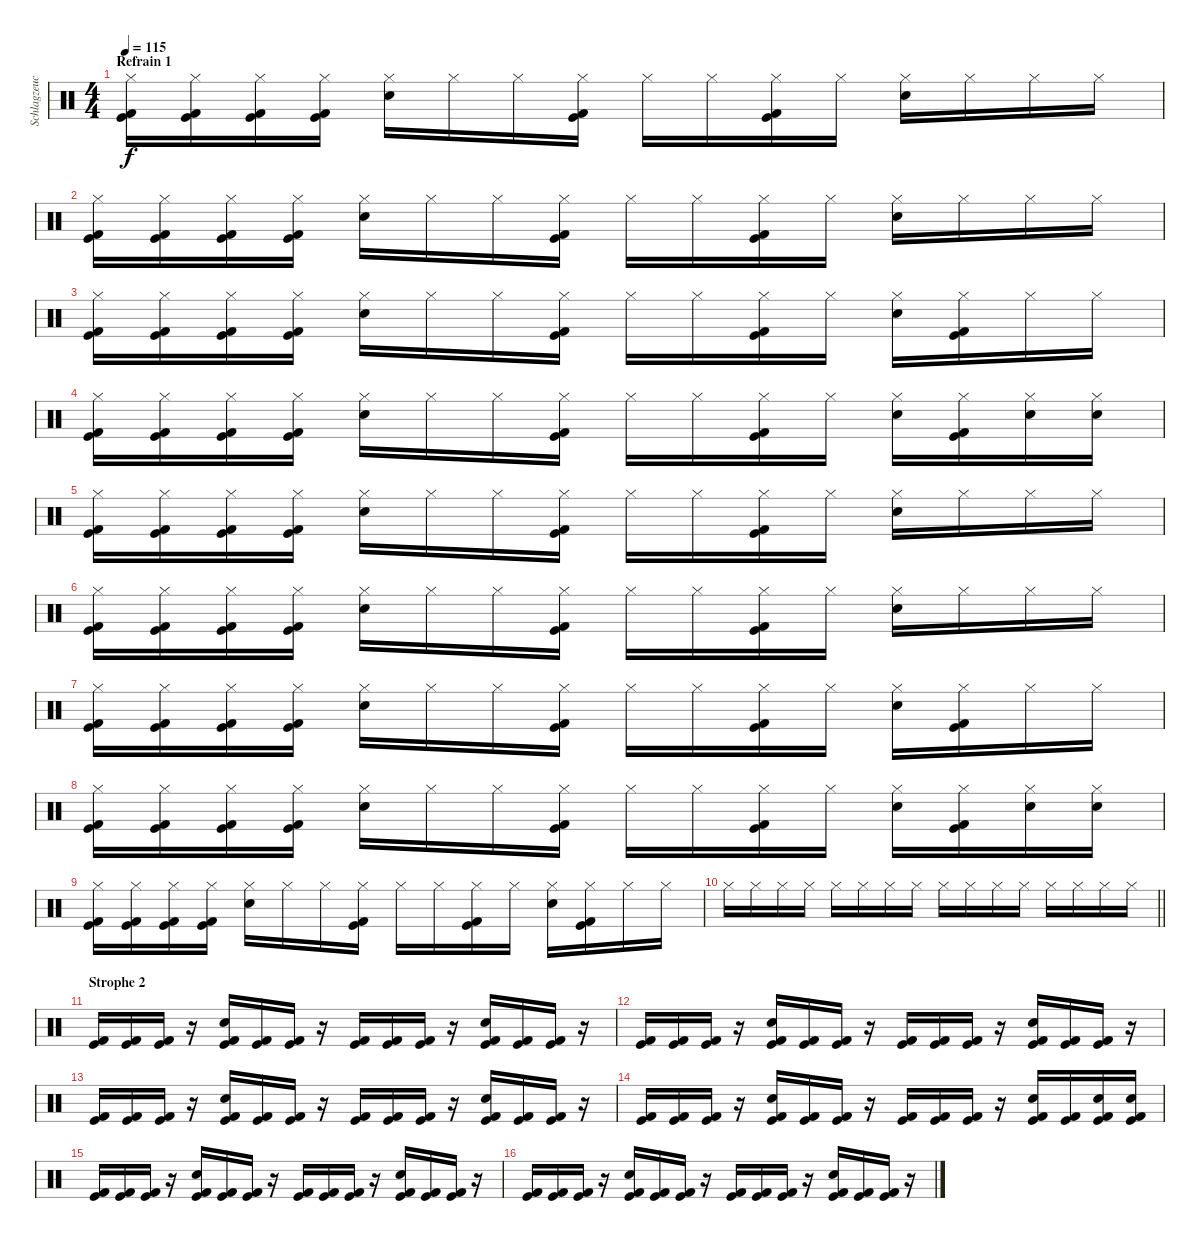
\track ("Schlagzeuch" "Schlagzeuc") {instrument percussion}
\staff {score}
\articulation defaults
\ts (4 4)
\section ("" "Refrain 1")
\tempo 115
\clef neutral
\ks c
("Hi-Hat (closed)" "Kick (hit)" "Kick (hit) 2").16{dy f} ("Hi-Hat (closed)" "Kick (hit)" "Kick (hit) 2").16 ("Hi-Hat (closed)" "Kick (hit)" "Kick (hit) 2").16 ("Hi-Hat (closed)" "Kick (hit)" "Kick (hit) 2").16 ("Hi-Hat (closed)" "Electric Snare (hit)").16 "Hi-Hat (closed)".16 "Hi-Hat (closed)".16 ("Hi-Hat (closed)" "Kick (hit)" "Kick (hit) 2").16 "Hi-Hat (closed)".16 "Hi-Hat (closed)".16 ("Hi-Hat (closed)" "Kick (hit)" "Kick (hit) 2").16 "Hi-Hat (closed)".16 ("Hi-Hat (closed)" "Electric Snare (hit)").16 "Hi-Hat (closed)".16 "Hi-Hat (closed)".16 "Hi-Hat (closed)".16 |
("Hi-Hat (closed)" "Kick (hit)" "Kick (hit) 2").16 ("Hi-Hat (closed)" "Kick (hit)" "Kick (hit) 2").16 ("Hi-Hat (closed)" "Kick (hit)" "Kick (hit) 2").16 ("Hi-Hat (closed)" "Kick (hit)" "Kick (hit) 2").16 ("Hi-Hat (closed)" "Electric Snare (hit)").16 "Hi-Hat (closed)".16 "Hi-Hat (closed)".16 ("Hi-Hat (closed)" "Kick (hit)" "Kick (hit) 2").16 "Hi-Hat (closed)".16 "Hi-Hat (closed)".16 ("Hi-Hat (closed)" "Kick (hit)" "Kick (hit) 2").16 "Hi-Hat (closed)".16 ("Hi-Hat (closed)" "Electric Snare (hit)").16 "Hi-Hat (closed)".16 "Hi-Hat (closed)".16 "Hi-Hat (closed)".16 |
("Hi-Hat (closed)" "Kick (hit)" "Kick (hit) 2").16 ("Hi-Hat (closed)" "Kick (hit)" "Kick (hit) 2").16 ("Hi-Hat (closed)" "Kick (hit)" "Kick (hit) 2").16 ("Hi-Hat (closed)" "Kick (hit)" "Kick (hit) 2").16 ("Hi-Hat (closed)" "Electric Snare (hit)").16 "Hi-Hat (closed)".16 "Hi-Hat (closed)".16 ("Hi-Hat (closed)" "Kick (hit)" "Kick (hit) 2").16 "Hi-Hat (closed)".16 "Hi-Hat (closed)".16 ("Hi-Hat (closed)" "Kick (hit)" "Kick (hit) 2").16 "Hi-Hat (closed)".16 ("Hi-Hat (closed)" "Electric Snare (hit)").16 ("Hi-Hat (closed)" "Kick (hit)" "Kick (hit) 2").16 "Hi-Hat (closed)".16 "Hi-Hat (closed)".16 |
("Hi-Hat (closed)" "Kick (hit)" "Kick (hit) 2").16 ("Hi-Hat (closed)" "Kick (hit)" "Kick (hit) 2").16 ("Hi-Hat (closed)" "Kick (hit)" "Kick (hit) 2").16 ("Hi-Hat (closed)" "Kick (hit)" "Kick (hit) 2").16 ("Hi-Hat (closed)" "Electric Snare (hit)").16 "Hi-Hat (closed)".16 "Hi-Hat (closed)".16 ("Hi-Hat (closed)" "Kick (hit)" "Kick (hit) 2").16 "Hi-Hat (closed)".16 "Hi-Hat (closed)".16 ("Hi-Hat (closed)" "Kick (hit)" "Kick (hit) 2").16 "Hi-Hat (closed)".16 ("Hi-Hat (closed)" "Electric Snare (hit)").16 ("Hi-Hat (closed)" "Kick (hit)" "Kick (hit) 2").16 ("Hi-Hat (closed)" "Electric Snare (hit)").16 ("Hi-Hat (closed)" "Electric Snare (hit)").16 |
("Hi-Hat (closed)" "Kick (hit)" "Kick (hit) 2").16 ("Hi-Hat (closed)" "Kick (hit)" "Kick (hit) 2").16 ("Hi-Hat (closed)" "Kick (hit)" "Kick (hit) 2").16 ("Hi-Hat (closed)" "Kick (hit)" "Kick (hit) 2").16 ("Hi-Hat (closed)" "Electric Snare (hit)").16 "Hi-Hat (closed)".16 "Hi-Hat (closed)".16 ("Hi-Hat (closed)" "Kick (hit)" "Kick (hit) 2").16 "Hi-Hat (closed)".16 "Hi-Hat (closed)".16 ("Hi-Hat (closed)" "Kick (hit)" "Kick (hit) 2").16 "Hi-Hat (closed)".16 ("Hi-Hat (closed)" "Electric Snare (hit)").16 "Hi-Hat (closed)".16 "Hi-Hat (closed)".16 "Hi-Hat (closed)".16 |
("Hi-Hat (closed)" "Kick (hit)" "Kick (hit) 2").16 ("Hi-Hat (closed)" "Kick (hit)" "Kick (hit) 2").16 ("Hi-Hat (closed)" "Kick (hit)" "Kick (hit) 2").16 ("Hi-Hat (closed)" "Kick (hit)" "Kick (hit) 2").16 ("Hi-Hat (closed)" "Electric Snare (hit)").16 "Hi-Hat (closed)".16 "Hi-Hat (closed)".16 ("Hi-Hat (closed)" "Kick (hit)" "Kick (hit) 2").16 "Hi-Hat (closed)".16 "Hi-Hat (closed)".16 ("Hi-Hat (closed)" "Kick (hit)" "Kick (hit) 2").16 "Hi-Hat (closed)".16 ("Hi-Hat (closed)" "Electric Snare (hit)").16 "Hi-Hat (closed)".16 "Hi-Hat (closed)".16 "Hi-Hat (closed)".16 |
("Hi-Hat (closed)" "Kick (hit)" "Kick (hit) 2").16 ("Hi-Hat (closed)" "Kick (hit)" "Kick (hit) 2").16 ("Hi-Hat (closed)" "Kick (hit)" "Kick (hit) 2").16 ("Hi-Hat (closed)" "Kick (hit)" "Kick (hit) 2").16 ("Hi-Hat (closed)" "Electric Snare (hit)").16 "Hi-Hat (closed)".16 "Hi-Hat (closed)".16 ("Hi-Hat (closed)" "Kick (hit)" "Kick (hit) 2").16 "Hi-Hat (closed)".16 "Hi-Hat (closed)".16 ("Hi-Hat (closed)" "Kick (hit)" "Kick (hit) 2").16 "Hi-Hat (closed)".16 ("Hi-Hat (closed)" "Electric Snare (hit)").16 ("Hi-Hat (closed)" "Kick (hit)" "Kick (hit) 2").16 "Hi-Hat (closed)".16 "Hi-Hat (closed)".16 |
("Hi-Hat (closed)" "Kick (hit)" "Kick (hit) 2").16 ("Hi-Hat (closed)" "Kick (hit)" "Kick (hit) 2").16 ("Hi-Hat (closed)" "Kick (hit)" "Kick (hit) 2").16 ("Hi-Hat (closed)" "Kick (hit)" "Kick (hit) 2").16 ("Hi-Hat (closed)" "Electric Snare (hit)").16 "Hi-Hat (closed)".16 "Hi-Hat (closed)".16 ("Hi-Hat (closed)" "Kick (hit)" "Kick (hit) 2").16 "Hi-Hat (closed)".16 "Hi-Hat (closed)".16 ("Hi-Hat (closed)" "Kick (hit)" "Kick (hit) 2").16 "Hi-Hat (closed)".16 ("Hi-Hat (closed)" "Electric Snare (hit)").16 ("Hi-Hat (closed)" "Kick (hit)" "Kick (hit) 2").16 ("Hi-Hat (closed)" "Electric Snare (hit)").16 ("Hi-Hat (closed)" "Electric Snare (hit)").16 |
("Hi-Hat (closed)" "Kick (hit)" "Kick (hit) 2").16 ("Hi-Hat (closed)" "Kick (hit)" "Kick (hit) 2").16 ("Hi-Hat (closed)" "Kick (hit)" "Kick (hit) 2").16 ("Hi-Hat (closed)" "Kick (hit)" "Kick (hit) 2").16 ("Hi-Hat (closed)" "Electric Snare (hit)").16 "Hi-Hat (closed)".16 "Hi-Hat (closed)".16 ("Hi-Hat (closed)" "Kick (hit)" "Kick (hit) 2").16 "Hi-Hat (closed)".16 "Hi-Hat (closed)".16 ("Hi-Hat (closed)" "Kick (hit)" "Kick (hit) 2").16 "Hi-Hat (closed)".16 ("Hi-Hat (closed)" "Electric Snare (hit)").16 ("Hi-Hat (closed)" "Kick (hit)" "Kick (hit) 2").16 "Hi-Hat (closed)".16 "Hi-Hat (closed)".16 |
\barLineRight lightlight "Hi-Hat (closed)".16 "Hi-Hat (closed)".16 "Hi-Hat (closed)".16 "Hi-Hat (closed)".16 "Hi-Hat (closed)".16 "Hi-Hat (closed)".16 "Hi-Hat (closed)".16 "Hi-Hat (closed)".16 "Hi-Hat (closed)".16 "Hi-Hat (closed)".16 "Hi-Hat (closed)".16 "Hi-Hat (closed)".16 "Hi-Hat (closed)".16 "Hi-Hat (closed)".16 "Hi-Hat (closed)".16 "Hi-Hat (closed)".16
|
\section ("" "Strophe 2")
("Kick (hit)" "Kick (hit) 2").16 ("Kick (hit)" "Kick (hit) 2").16 ("Kick (hit)" "Kick (hit) 2").16 r.16 ("Kick (hit)" "Kick (hit) 2" "Electric Snare (hit)").16 ("Kick (hit)" "Kick (hit) 2").16 ("Kick (hit)" "Kick (hit) 2").16 r.16 ("Kick (hit)" "Kick (hit) 2").16 ("Kick (hit)" "Kick (hit) 2").16 ("Kick (hit)" "Kick (hit) 2").16 r.16 ("Kick (hit)" "Kick (hit) 2" "Electric Snare (hit)").16 ("Kick (hit)" "Kick (hit) 2").16 ("Kick (hit)" "Kick (hit) 2").16 r.16 |
("Kick (hit)" "Kick (hit) 2").16 ("Kick (hit)" "Kick (hit) 2").16 ("Kick (hit)" "Kick (hit) 2").16 r.16 ("Kick (hit)" "Kick (hit) 2" "Electric Snare (hit)").16 ("Kick (hit)" "Kick (hit) 2").16 ("Kick (hit)" "Kick (hit) 2").16 r.16 ("Kick (hit)" "Kick (hit) 2").16 ("Kick (hit)" "Kick (hit) 2").16 ("Kick (hit)" "Kick (hit) 2").16 r.16 ("Kick (hit)" "Kick (hit) 2" "Electric Snare (hit)").16 ("Kick (hit)" "Kick (hit) 2").16 ("Kick (hit)" "Kick (hit) 2").16 r.16 |
("Kick (hit)" "Kick (hit) 2").16 ("Kick (hit)" "Kick (hit) 2").16 ("Kick (hit)" "Kick (hit) 2").16 r.16 ("Kick (hit)" "Kick (hit) 2" "Electric Snare (hit)").16 ("Kick (hit)" "Kick (hit) 2").16 ("Kick (hit)" "Kick (hit) 2").16 r.16 ("Kick (hit)" "Kick (hit) 2").16 ("Kick (hit)" "Kick (hit) 2").16 ("Kick (hit)" "Kick (hit) 2").16 r.16 ("Kick (hit)" "Kick (hit) 2" "Electric Snare (hit)").16 ("Kick (hit)" "Kick (hit) 2").16 ("Kick (hit)" "Kick (hit) 2").16 r.16 |
("Kick (hit)" "Kick (hit) 2").16 ("Kick (hit)" "Kick (hit) 2").16 ("Kick (hit)" "Kick (hit) 2").16 r.16 ("Kick (hit)" "Kick (hit) 2" "Electric Snare (hit)").16 ("Kick (hit)" "Kick (hit) 2").16 ("Kick (hit)" "Kick (hit) 2").16 r.16 ("Kick (hit)" "Kick (hit) 2").16 ("Kick (hit)" "Kick (hit) 2").16 ("Kick (hit)" "Kick (hit) 2").16 r.16 ("Kick (hit)" "Kick (hit) 2" "Electric Snare (hit)").16 ("Kick (hit)" "Kick (hit) 2").16 ("Kick (hit)" "Kick (hit) 2" "Electric Snare (hit)").16 ("Kick (hit)" "Kick (hit) 2" "Electric Snare (hit)").16 |
("Kick (hit)" "Kick (hit) 2").16 ("Kick (hit)" "Kick (hit) 2").16 ("Kick (hit)" "Kick (hit) 2").16 r.16 ("Kick (hit)" "Kick (hit) 2" "Electric Snare (hit)").16 ("Kick (hit)" "Kick (hit) 2").16 ("Kick (hit)" "Kick (hit) 2").16 r.16 ("Kick (hit)" "Kick (hit) 2").16 ("Kick (hit)" "Kick (hit) 2").16 ("Kick (hit)" "Kick (hit) 2").16 r.16 ("Kick (hit)" "Kick (hit) 2" "Electric Snare (hit)").16 ("Kick (hit)" "Kick (hit) 2").16 ("Kick (hit)" "Kick (hit) 2").16 r.16 |
("Kick (hit)" "Kick (hit) 2").16 ("Kick (hit)" "Kick (hit) 2").16 ("Kick (hit)" "Kick (hit) 2").16 r.16 ("Kick (hit)" "Kick (hit) 2" "Electric Snare (hit)").16 ("Kick (hit)" "Kick (hit) 2").16 ("Kick (hit)" "Kick (hit) 2").16 r.16 ("Kick (hit)" "Kick (hit) 2").16 ("Kick (hit)" "Kick (hit) 2").16 ("Kick (hit)" "Kick (hit) 2").16 r.16 ("Kick (hit)" "Kick (hit) 2" "Electric Snare (hit)").16 ("Kick (hit)" "Kick (hit) 2").16 ("Kick (hit)" "Kick (hit) 2").16 r.16
